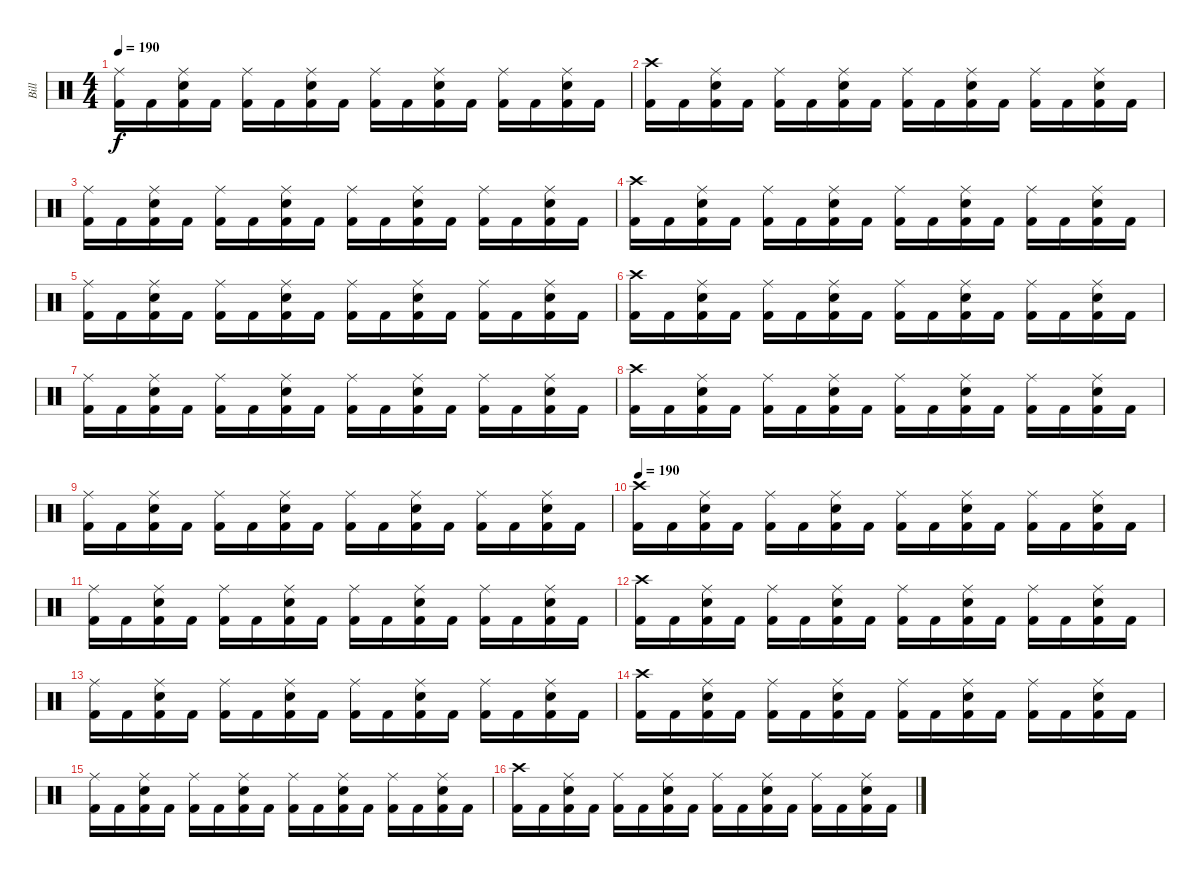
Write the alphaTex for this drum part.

\track ("Bill" "Bill") {instrument percussion}
\staff {score}
\articulation defaults
\ts (4 4)
\tempo 190
\clef neutral
\ks c
("Ride (middle)" "Kick (hit) 2").16{dy f} "Kick (hit) 2".16 ("Ride (middle)" "Snare (hit) 2" "Kick (hit) 2").16 "Kick (hit) 2".16 ("Ride (middle)" "Kick (hit) 2").16 "Kick (hit) 2".16 ("Ride (middle)" "Snare (hit) 2" "Kick (hit) 2").16 "Kick (hit) 2".16 ("Ride (middle)" "Kick (hit) 2").16 "Kick (hit) 2".16 ("Ride (middle)" "Snare (hit) 2" "Kick (hit) 2").16 "Kick (hit) 2".16 ("Ride (middle)" "Kick (hit) 2").16 "Kick (hit) 2".16 ("Ride (middle)" "Snare (hit) 2" "Kick (hit) 2").16 "Kick (hit) 2".16 |
("Crash high (hit)" "Kick (hit) 2").16 "Kick (hit) 2".16 ("Ride (middle)" "Snare (hit) 2" "Kick (hit) 2").16 "Kick (hit) 2".16 ("Ride (middle)" "Kick (hit) 2").16 "Kick (hit) 2".16 ("Ride (middle)" "Snare (hit) 2" "Kick (hit) 2").16 "Kick (hit) 2".16 ("Ride (middle)" "Kick (hit) 2").16 "Kick (hit) 2".16 ("Ride (middle)" "Snare (hit) 2" "Kick (hit) 2").16 "Kick (hit) 2".16 ("Ride (middle)" "Kick (hit) 2").16 "Kick (hit) 2".16 ("Ride (middle)" "Snare (hit) 2" "Kick (hit) 2").16 "Kick (hit) 2".16 |
("Ride (middle)" "Kick (hit) 2").16 "Kick (hit) 2".16 ("Ride (middle)" "Snare (hit) 2" "Kick (hit) 2").16 "Kick (hit) 2".16 ("Ride (middle)" "Kick (hit) 2").16 "Kick (hit) 2".16 ("Ride (middle)" "Snare (hit) 2" "Kick (hit) 2").16 "Kick (hit) 2".16 ("Ride (middle)" "Kick (hit) 2").16 "Kick (hit) 2".16 ("Ride (middle)" "Snare (hit) 2" "Kick (hit) 2").16 "Kick (hit) 2".16 ("Ride (middle)" "Kick (hit) 2").16 "Kick (hit) 2".16 ("Ride (middle)" "Snare (hit) 2" "Kick (hit) 2").16 "Kick (hit) 2".16 |
("Crash high (hit)" "Kick (hit) 2").16 "Kick (hit) 2".16 ("Ride (middle)" "Snare (hit) 2" "Kick (hit) 2").16 "Kick (hit) 2".16 ("Ride (middle)" "Kick (hit) 2").16 "Kick (hit) 2".16 ("Ride (middle)" "Snare (hit) 2" "Kick (hit) 2").16 "Kick (hit) 2".16 ("Ride (middle)" "Kick (hit) 2").16 "Kick (hit) 2".16 ("Ride (middle)" "Snare (hit) 2" "Kick (hit) 2").16 "Kick (hit) 2".16 ("Ride (middle)" "Kick (hit) 2").16 "Kick (hit) 2".16 ("Ride (middle)" "Snare (hit) 2" "Kick (hit) 2").16 "Kick (hit) 2".16 |
("Ride (middle)" "Kick (hit) 2").16 "Kick (hit) 2".16 ("Ride (middle)" "Snare (hit) 2" "Kick (hit) 2").16 "Kick (hit) 2".16 ("Ride (middle)" "Kick (hit) 2").16 "Kick (hit) 2".16 ("Ride (middle)" "Snare (hit) 2" "Kick (hit) 2").16 "Kick (hit) 2".16 ("Ride (middle)" "Kick (hit) 2").16 "Kick (hit) 2".16 ("Ride (middle)" "Snare (hit) 2" "Kick (hit) 2").16 "Kick (hit) 2".16 ("Ride (middle)" "Kick (hit) 2").16 "Kick (hit) 2".16 ("Ride (middle)" "Snare (hit) 2" "Kick (hit) 2").16 "Kick (hit) 2".16 |
("Crash high (hit)" "Kick (hit) 2").16 "Kick (hit) 2".16 ("Ride (middle)" "Snare (hit) 2" "Kick (hit) 2").16 "Kick (hit) 2".16 ("Ride (middle)" "Kick (hit) 2").16 "Kick (hit) 2".16 ("Ride (middle)" "Snare (hit) 2" "Kick (hit) 2").16 "Kick (hit) 2".16 ("Ride (middle)" "Kick (hit) 2").16 "Kick (hit) 2".16 ("Ride (middle)" "Snare (hit) 2" "Kick (hit) 2").16 "Kick (hit) 2".16 ("Ride (middle)" "Kick (hit) 2").16 "Kick (hit) 2".16 ("Ride (middle)" "Snare (hit) 2" "Kick (hit) 2").16 "Kick (hit) 2".16 |
("Ride (middle)" "Kick (hit) 2").16 "Kick (hit) 2".16 ("Ride (middle)" "Snare (hit) 2" "Kick (hit) 2").16 "Kick (hit) 2".16 ("Ride (middle)" "Kick (hit) 2").16 "Kick (hit) 2".16 ("Ride (middle)" "Snare (hit) 2" "Kick (hit) 2").16 "Kick (hit) 2".16 ("Ride (middle)" "Kick (hit) 2").16 "Kick (hit) 2".16 ("Ride (middle)" "Snare (hit) 2" "Kick (hit) 2").16 "Kick (hit) 2".16 ("Ride (middle)" "Kick (hit) 2").16 "Kick (hit) 2".16 ("Ride (middle)" "Snare (hit) 2" "Kick (hit) 2").16 "Kick (hit) 2".16 |
("Crash high (hit)" "Kick (hit) 2").16 "Kick (hit) 2".16 ("Ride (middle)" "Snare (hit) 2" "Kick (hit) 2").16 "Kick (hit) 2".16 ("Ride (middle)" "Kick (hit) 2").16 "Kick (hit) 2".16 ("Ride (middle)" "Snare (hit) 2" "Kick (hit) 2").16 "Kick (hit) 2".16 ("Ride (middle)" "Kick (hit) 2").16 "Kick (hit) 2".16 ("Ride (middle)" "Snare (hit) 2" "Kick (hit) 2").16 "Kick (hit) 2".16 ("Ride (middle)" "Kick (hit) 2").16 "Kick (hit) 2".16 ("Ride (middle)" "Snare (hit) 2" "Kick (hit) 2").16 "Kick (hit) 2".16 |
("Ride (middle)" "Kick (hit) 2").16 "Kick (hit) 2".16 ("Ride (middle)" "Snare (hit) 2" "Kick (hit) 2").16 "Kick (hit) 2".16 ("Ride (middle)" "Kick (hit) 2").16 "Kick (hit) 2".16 ("Ride (middle)" "Snare (hit) 2" "Kick (hit) 2").16 "Kick (hit) 2".16 ("Ride (middle)" "Kick (hit) 2").16 "Kick (hit) 2".16 ("Ride (middle)" "Snare (hit) 2" "Kick (hit) 2").16 "Kick (hit) 2".16 ("Ride (middle)" "Kick (hit) 2").16 "Kick (hit) 2".16 ("Ride (middle)" "Snare (hit) 2" "Kick (hit) 2").16 "Kick (hit) 2".16 |
\tempo 190
("Crash high (hit)" "Kick (hit) 2").16 "Kick (hit) 2".16 ("Ride (middle)" "Snare (hit) 2" "Kick (hit) 2").16 "Kick (hit) 2".16 ("Ride (middle)" "Kick (hit) 2").16 "Kick (hit) 2".16 ("Ride (middle)" "Snare (hit) 2" "Kick (hit) 2").16 "Kick (hit) 2".16 ("Ride (middle)" "Kick (hit) 2").16 "Kick (hit) 2".16 ("Ride (middle)" "Snare (hit) 2" "Kick (hit) 2").16 "Kick (hit) 2".16 ("Ride (middle)" "Kick (hit) 2").16 "Kick (hit) 2".16 ("Ride (middle)" "Snare (hit) 2" "Kick (hit) 2").16 "Kick (hit) 2".16 |
("Ride (middle)" "Kick (hit) 2").16 "Kick (hit) 2".16 ("Ride (middle)" "Snare (hit) 2" "Kick (hit) 2").16 "Kick (hit) 2".16 ("Ride (middle)" "Kick (hit) 2").16 "Kick (hit) 2".16 ("Ride (middle)" "Snare (hit) 2" "Kick (hit) 2").16 "Kick (hit) 2".16 ("Ride (middle)" "Kick (hit) 2").16 "Kick (hit) 2".16 ("Ride (middle)" "Snare (hit) 2" "Kick (hit) 2").16 "Kick (hit) 2".16 ("Ride (middle)" "Kick (hit) 2").16 "Kick (hit) 2".16 ("Ride (middle)" "Snare (hit) 2" "Kick (hit) 2").16 "Kick (hit) 2".16 |
("Crash high (hit)" "Kick (hit) 2").16 "Kick (hit) 2".16 ("Ride (middle)" "Snare (hit) 2" "Kick (hit) 2").16 "Kick (hit) 2".16 ("Ride (middle)" "Kick (hit) 2").16 "Kick (hit) 2".16 ("Ride (middle)" "Snare (hit) 2" "Kick (hit) 2").16 "Kick (hit) 2".16 ("Ride (middle)" "Kick (hit) 2").16 "Kick (hit) 2".16 ("Ride (middle)" "Snare (hit) 2" "Kick (hit) 2").16 "Kick (hit) 2".16 ("Ride (middle)" "Kick (hit) 2").16 "Kick (hit) 2".16 ("Ride (middle)" "Snare (hit) 2" "Kick (hit) 2").16 "Kick (hit) 2".16 |
("Ride (middle)" "Kick (hit) 2").16 "Kick (hit) 2".16 ("Ride (middle)" "Snare (hit) 2" "Kick (hit) 2").16 "Kick (hit) 2".16 ("Ride (middle)" "Kick (hit) 2").16 "Kick (hit) 2".16 ("Ride (middle)" "Snare (hit) 2" "Kick (hit) 2").16 "Kick (hit) 2".16 ("Ride (middle)" "Kick (hit) 2").16 "Kick (hit) 2".16 ("Ride (middle)" "Snare (hit) 2" "Kick (hit) 2").16 "Kick (hit) 2".16 ("Ride (middle)" "Kick (hit) 2").16 "Kick (hit) 2".16 ("Ride (middle)" "Snare (hit) 2" "Kick (hit) 2").16 "Kick (hit) 2".16 |
("Crash high (hit)" "Kick (hit) 2").16 "Kick (hit) 2".16 ("Ride (middle)" "Snare (hit) 2" "Kick (hit) 2").16 "Kick (hit) 2".16 ("Ride (middle)" "Kick (hit) 2").16 "Kick (hit) 2".16 ("Ride (middle)" "Snare (hit) 2" "Kick (hit) 2").16 "Kick (hit) 2".16 ("Ride (middle)" "Kick (hit) 2").16 "Kick (hit) 2".16 ("Ride (middle)" "Snare (hit) 2" "Kick (hit) 2").16 "Kick (hit) 2".16 ("Ride (middle)" "Kick (hit) 2").16 "Kick (hit) 2".16 ("Ride (middle)" "Snare (hit) 2" "Kick (hit) 2").16 "Kick (hit) 2".16 |
("Ride (middle)" "Kick (hit) 2").16 "Kick (hit) 2".16 ("Ride (middle)" "Snare (hit) 2" "Kick (hit) 2").16 "Kick (hit) 2".16 ("Ride (middle)" "Kick (hit) 2").16 "Kick (hit) 2".16 ("Ride (middle)" "Snare (hit) 2" "Kick (hit) 2").16 "Kick (hit) 2".16 ("Ride (middle)" "Kick (hit) 2").16 "Kick (hit) 2".16 ("Ride (middle)" "Snare (hit) 2" "Kick (hit) 2").16 "Kick (hit) 2".16 ("Ride (middle)" "Kick (hit) 2").16 "Kick (hit) 2".16 ("Ride (middle)" "Snare (hit) 2" "Kick (hit) 2").16 "Kick (hit) 2".16 |
("Crash high (hit)" "Kick (hit) 2").16 "Kick (hit) 2".16 ("Ride (middle)" "Snare (hit) 2" "Kick (hit) 2").16 "Kick (hit) 2".16 ("Ride (middle)" "Kick (hit) 2").16 "Kick (hit) 2".16 ("Ride (middle)" "Snare (hit) 2" "Kick (hit) 2").16 "Kick (hit) 2".16 ("Ride (middle)" "Kick (hit) 2").16 "Kick (hit) 2".16 ("Ride (middle)" "Snare (hit) 2" "Kick (hit) 2").16 "Kick (hit) 2".16 ("Ride (middle)" "Kick (hit) 2").16 "Kick (hit) 2".16 ("Ride (middle)" "Snare (hit) 2" "Kick (hit) 2").16 "Kick (hit) 2".16
